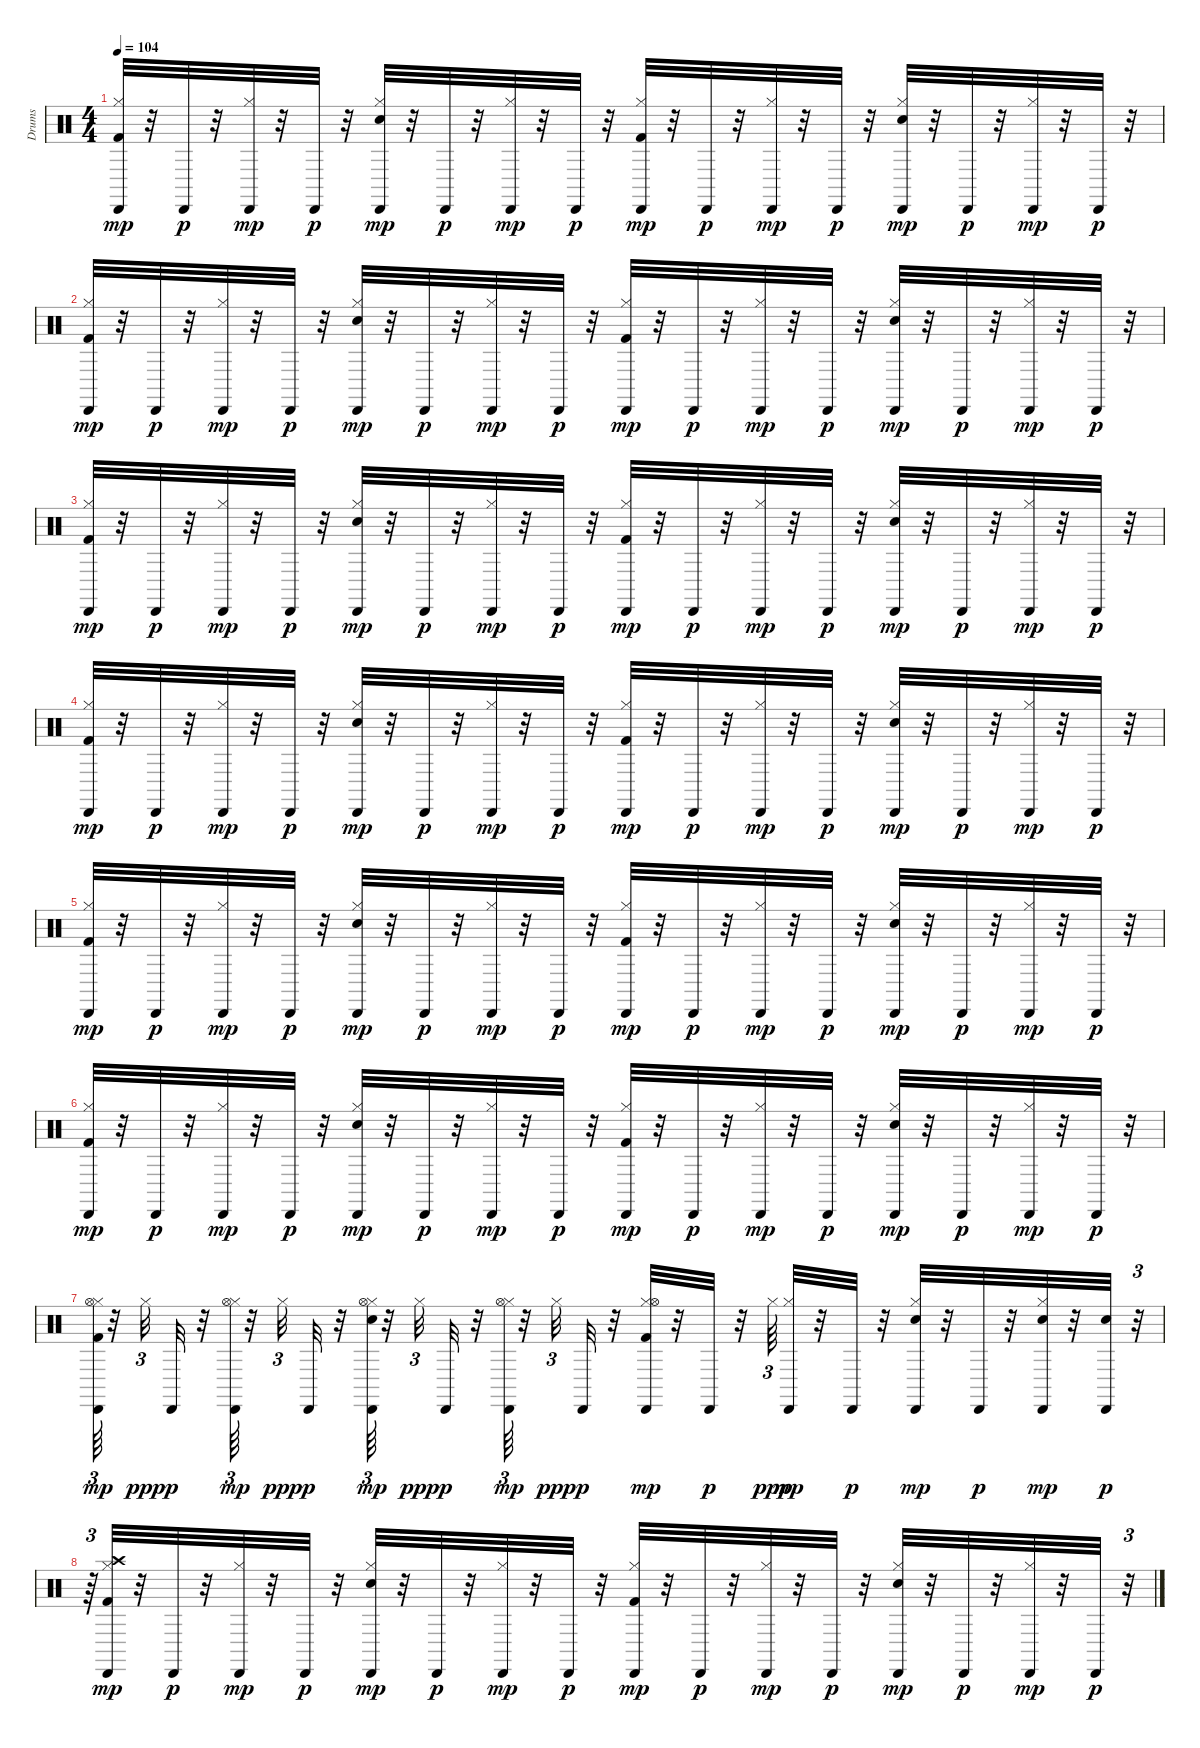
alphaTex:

\track ("Drums               " "Drums     ") {instrument percussion}
\staff {score}
\articulation defaults
\ts (4 4)
\tempo 104
\clef neutral
\ks c
("Kick (hit) 2" "Hi-Hat (closed)" "Cabasa (hit)").32{dy mp} r.32 "Cabasa (hit)".32{dy p} r.32 ("Hi-Hat (closed)" "Cabasa (hit)").32{dy mp} r.32 "Cabasa (hit)".32{dy p} r.32 ("Snare (hit) 2" "Hi-Hat (closed)" "Cabasa (hit)").32{dy mp} r.32 "Cabasa (hit)".32{dy p} r.32 ("Hi-Hat (closed)" "Cabasa (hit)").32{dy mp} r.32 "Cabasa (hit)".32{dy p} r.32 ("Kick (hit) 2" "Hi-Hat (closed)" "Cabasa (hit)").32{dy mp} r.32 "Cabasa (hit)".32{dy p} r.32 ("Hi-Hat (closed)" "Cabasa (hit)").32{dy mp} r.32 "Cabasa (hit)".32{dy p} r.32 ("Snare (hit) 2" "Hi-Hat (closed)" "Cabasa (hit)").32{dy mp} r.32 "Cabasa (hit)".32{dy p} r.32 ("Hi-Hat (closed)" "Cabasa (hit)").32{dy mp} r.32 "Cabasa (hit)".32{dy p} r.32 |
("Kick (hit) 2" "Hi-Hat (closed)" "Cabasa (hit)").32{dy mp} r.32 "Cabasa (hit)".32{dy p} r.32 ("Hi-Hat (closed)" "Cabasa (hit)").32{dy mp} r.32 "Cabasa (hit)".32{dy p} r.32 ("Snare (hit) 2" "Hi-Hat (closed)" "Cabasa (hit)").32{dy mp} r.32 "Cabasa (hit)".32{dy p} r.32 ("Hi-Hat (closed)" "Cabasa (hit)").32{dy mp} r.32 "Cabasa (hit)".32{dy p} r.32 ("Kick (hit) 2" "Hi-Hat (closed)" "Cabasa (hit)").32{dy mp} r.32 "Cabasa (hit)".32{dy p} r.32 ("Hi-Hat (closed)" "Cabasa (hit)").32{dy mp} r.32 "Cabasa (hit)".32{dy p} r.32 ("Snare (hit) 2" "Hi-Hat (closed)" "Cabasa (hit)").32{dy mp} r.32 "Cabasa (hit)".32{dy p} r.32 ("Hi-Hat (closed)" "Cabasa (hit)").32{dy mp} r.32 "Cabasa (hit)".32{dy p} r.32 |
("Kick (hit) 2" "Hi-Hat (closed)" "Cabasa (hit)").32{dy mp} r.32 "Cabasa (hit)".32{dy p} r.32 ("Hi-Hat (closed)" "Cabasa (hit)").32{dy mp} r.32 "Cabasa (hit)".32{dy p} r.32 ("Snare (hit) 2" "Hi-Hat (closed)" "Cabasa (hit)").32{dy mp} r.32 "Cabasa (hit)".32{dy p} r.32 ("Hi-Hat (closed)" "Cabasa (hit)").32{dy mp} r.32 "Cabasa (hit)".32{dy p} r.32 ("Kick (hit) 2" "Hi-Hat (closed)" "Cabasa (hit)").32{dy mp} r.32 "Cabasa (hit)".32{dy p} r.32 ("Hi-Hat (closed)" "Cabasa (hit)").32{dy mp} r.32 "Cabasa (hit)".32{dy p} r.32 ("Snare (hit) 2" "Hi-Hat (closed)" "Cabasa (hit)").32{dy mp} r.32 "Cabasa (hit)".32{dy p} r.32 ("Hi-Hat (closed)" "Cabasa (hit)").32{dy mp} r.32 "Cabasa (hit)".32{dy p} r.32 |
("Kick (hit) 2" "Hi-Hat (closed)" "Cabasa (hit)").32{dy mp} r.32 "Cabasa (hit)".32{dy p} r.32 ("Hi-Hat (closed)" "Cabasa (hit)").32{dy mp} r.32 "Cabasa (hit)".32{dy p} r.32 ("Snare (hit) 2" "Hi-Hat (closed)" "Cabasa (hit)").32{dy mp} r.32 "Cabasa (hit)".32{dy p} r.32 ("Hi-Hat (closed)" "Cabasa (hit)").32{dy mp} r.32 "Cabasa (hit)".32{dy p} r.32 ("Kick (hit) 2" "Hi-Hat (closed)" "Cabasa (hit)").32{dy mp} r.32 "Cabasa (hit)".32{dy p} r.32 ("Hi-Hat (closed)" "Cabasa (hit)").32{dy mp} r.32 "Cabasa (hit)".32{dy p} r.32 ("Snare (hit) 2" "Hi-Hat (closed)" "Cabasa (hit)").32{dy mp} r.32 "Cabasa (hit)".32{dy p} r.32 ("Hi-Hat (closed)" "Cabasa (hit)").32{dy mp} r.32 "Cabasa (hit)".32{dy p} r.32 |
("Kick (hit) 2" "Hi-Hat (closed)" "Cabasa (hit)").32{dy mp} r.32 "Cabasa (hit)".32{dy p} r.32 ("Hi-Hat (closed)" "Cabasa (hit)").32{dy mp} r.32 "Cabasa (hit)".32{dy p} r.32 ("Snare (hit) 2" "Hi-Hat (closed)" "Cabasa (hit)").32{dy mp} r.32 "Cabasa (hit)".32{dy p} r.32 ("Hi-Hat (closed)" "Cabasa (hit)").32{dy mp} r.32 "Cabasa (hit)".32{dy p} r.32 ("Kick (hit) 2" "Hi-Hat (closed)" "Cabasa (hit)").32{dy mp} r.32 "Cabasa (hit)".32{dy p} r.32 ("Hi-Hat (closed)" "Cabasa (hit)").32{dy mp} r.32 "Cabasa (hit)".32{dy p} r.32 ("Snare (hit) 2" "Hi-Hat (closed)" "Cabasa (hit)").32{dy mp} r.32 "Cabasa (hit)".32{dy p} r.32 ("Hi-Hat (closed)" "Cabasa (hit)").32{dy mp} r.32 "Cabasa (hit)".32{dy p} r.32 |
("Kick (hit) 2" "Hi-Hat (closed)" "Cabasa (hit)").32{dy mp} r.32 "Cabasa (hit)".32{dy p} r.32 ("Hi-Hat (closed)" "Cabasa (hit)").32{dy mp} r.32 "Cabasa (hit)".32{dy p} r.32 ("Snare (hit) 2" "Hi-Hat (closed)" "Cabasa (hit)").32{dy mp} r.32 "Cabasa (hit)".32{dy p} r.32 ("Hi-Hat (closed)" "Cabasa (hit)").32{dy mp} r.32 "Cabasa (hit)".32{dy p} r.32 ("Kick (hit) 2" "Hi-Hat (closed)" "Cabasa (hit)").32{dy mp} r.32 "Cabasa (hit)".32{dy p} r.32 ("Hi-Hat (closed)" "Cabasa (hit)").32{dy mp} r.32 "Cabasa (hit)".32{dy p} r.32 ("Snare (hit) 2" "Hi-Hat (closed)" "Cabasa (hit)").32{dy mp} r.32 "Cabasa (hit)".32{dy p} r.32 ("Hi-Hat (closed)" "Cabasa (hit)").32{dy mp} r.32 "Cabasa (hit)".32{dy p} r.32 |
("Kick (hit) 2" "Hi-Hat (closed)" "Hi-Hat (open)" "Cabasa (hit)").64{tu (3 2) dy mp} r.32 "Hi-Hat (closed)".32{tu (3 2) dy ppp} "Cabasa (hit)".32{dy p} r.32 ("Hi-Hat (closed)" "Hi-Hat (open)" "Cabasa (hit)").64{tu (3 2) dy mp} r.32 "Hi-Hat (closed)".32{tu (3 2) dy ppp} "Cabasa (hit)".32{dy p} r.32 ("Snare (hit) 2" "Hi-Hat (closed)" "Hi-Hat (open)" "Cabasa (hit)").64{tu (3 2) dy mp} r.32 "Hi-Hat (closed)".32{tu (3 2) dy ppp} "Cabasa (hit)".32{dy p} r.32 ("Hi-Hat (closed)" "Hi-Hat (open)" "Cabasa (hit)").64{tu (3 2) dy mp} r.32 "Hi-Hat (closed)".32{tu (3 2) dy ppp} "Cabasa (hit)".32{dy p} r.32 ("Kick (hit) 2" "Hi-Hat (closed)" "Hi-Hat (open)" "Cabasa (hit)").32{dy mp} r.32 "Cabasa (hit)".32{dy p} r.32 "Hi-Hat (closed)".64{tu (3 2) dy ppp} ("Hi-Hat (closed)" "Cabasa (hit)").32{dy mp} r.32 "Cabasa (hit)".32{dy p} r.32 ("Snare (hit) 2" "Hi-Hat (closed)" "Cabasa (hit)").32{dy mp} r.32 "Cabasa (hit)".32{dy p} r.32 ("Snare (hit) 2" "Hi-Hat (closed)" "Cabasa (hit)").32{dy mp} r.32 ("Snare (hit) 2" "Cabasa (hit)").32{dy p} r.32{tu (3 2)} |
r.64{tu (3 2)} ("Kick (hit) 2" "Hi-Hat (closed)" "Crash high (hit)" "Cabasa (hit)").32{dy mp} r.32 "Cabasa (hit)".32{dy p} r.32 ("Hi-Hat (closed)" "Cabasa (hit)").32{dy mp} r.32 "Cabasa (hit)".32{dy p} r.32 ("Snare (hit) 2" "Hi-Hat (closed)" "Cabasa (hit)").32{dy mp} r.32 "Cabasa (hit)".32{dy p} r.32 ("Hi-Hat (closed)" "Cabasa (hit)").32{dy mp} r.32 "Cabasa (hit)".32{dy p} r.32 ("Kick (hit) 2" "Hi-Hat (closed)" "Cabasa (hit)").32{dy mp} r.32 "Cabasa (hit)".32{dy p} r.32 ("Hi-Hat (closed)" "Cabasa (hit)").32{dy mp} r.32 "Cabasa (hit)".32{dy p} r.32 ("Snare (hit) 2" "Hi-Hat (closed)" "Cabasa (hit)").32{dy mp} r.32 "Cabasa (hit)".32{dy p} r.32 ("Hi-Hat (closed)" "Cabasa (hit)").32{dy mp} r.32 "Cabasa (hit)".32{dy p} r.32{tu (3 2)}
